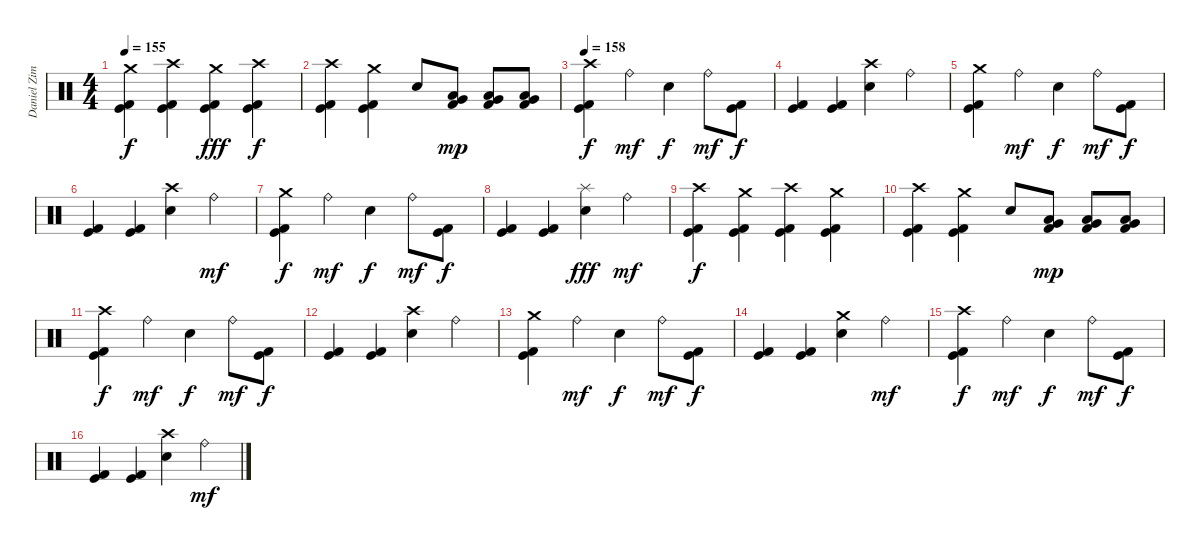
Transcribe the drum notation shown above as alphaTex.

\track ("Daniel Zimmermann - Drums" "Daniel Zim") {instrument percussion}
\staff {score}
\articulation defaults
\ts (4 4)
\tempo 155
\clef neutral
\ks c
("Kick (hit) 2" "Kick (hit)" "Crash medium (hit)").4{dy f} ("Kick (hit) 2" "Kick (hit)" "Crash high (hit)").4 ("Kick (hit) 2" "Kick (hit)" "Crash medium (hit)").4{dy fff} ("Kick (hit) 2" "Kick (hit)" "Crash high (hit)").4{dy f} |
("Kick (hit) 2" "Kick (hit)" "Crash high (hit)").4 ("Kick (hit) 2" "Kick (hit)" "Crash medium (hit)").4 "Electric Snare (hit)".8 ("Kick (hit) 2" "Low Tom (hit)" "Very Low Tom (hit)").8{dy mp} ("Kick (hit) 2" "Low Tom (hit)" "Very Low Tom (hit)").8 ("Kick (hit) 2" "Very Low Tom (hit)" "Low Floor Tom (hit)").8 |
\tempo 158
("Kick (hit) 2" "Kick (hit)" "Crash high (hit)").4{dy f} "Ride (bell)".4{dy mf} "Electric Snare (hit)".4{dy f} "Ride (bell)".8{dy mf} ("Kick (hit) 2" "Kick (hit)").8{dy f} |
("Kick (hit) 2" "Kick (hit)").4 ("Kick (hit) 2" "Kick (hit)").4 ("Electric Snare (hit)" "Crash high (hit)").4 "Ride (bell)".4 |
("Kick (hit) 2" "Kick (hit)" "Crash medium (hit)").4 "Ride (bell)".4{dy mf} "Electric Snare (hit)".4{dy f} "Ride (bell)".8{dy mf} ("Kick (hit) 2" "Kick (hit)").8{dy f} |
("Kick (hit) 2" "Kick (hit)").4 ("Kick (hit) 2" "Kick (hit)").4 ("Electric Snare (hit)" "Crash high (hit)").4 "Ride (bell)".4{dy mf} |
("Kick (hit) 2" "Kick (hit)" "Crash medium (hit)").4{dy f} "Ride (bell)".4{dy mf} "Electric Snare (hit)".4{dy f} "Ride (bell)".8{dy mf} ("Kick (hit) 2" "Kick (hit)").8{dy f} |
("Kick (hit) 2" "Kick (hit)").4 ("Kick (hit) 2" "Kick (hit)").4 ("Electric Snare (hit)" "Splash (hit)").4{dy fff} "Ride (bell)".4{dy mf} |
("Kick (hit) 2" "Kick (hit)" "Crash high (hit)").4{dy f} ("Kick (hit) 2" "Kick (hit)" "Crash medium (hit)").4 ("Kick (hit) 2" "Kick (hit)" "Crash high (hit)").4 ("Kick (hit) 2" "Kick (hit)" "Crash medium (hit)").4 |
("Kick (hit) 2" "Kick (hit)" "Crash high (hit)").4 ("Kick (hit) 2" "Kick (hit)" "Crash medium (hit)").4 "Electric Snare (hit)".8 ("Kick (hit) 2" "Low Tom (hit)" "Very Low Tom (hit)").8{dy mp} ("Kick (hit) 2" "Low Tom (hit)" "Very Low Tom (hit)").8 ("Kick (hit) 2" "Very Low Tom (hit)" "Low Floor Tom (hit)").8 |
("Kick (hit) 2" "Kick (hit)" "Crash high (hit)").4{dy f} "Ride (bell)".4{dy mf} "Electric Snare (hit)".4{dy f} "Ride (bell)".8{dy mf} ("Kick (hit) 2" "Kick (hit)").8{dy f} |
("Kick (hit) 2" "Kick (hit)").4 ("Kick (hit) 2" "Kick (hit)").4 ("Electric Snare (hit)" "Crash high (hit)").4 "Ride (bell)".4 |
("Kick (hit) 2" "Kick (hit)" "Crash medium (hit)").4 "Ride (bell)".4{dy mf} "Electric Snare (hit)".4{dy f} "Ride (bell)".8{dy mf} ("Kick (hit) 2" "Kick (hit)").8{dy f} |
("Kick (hit) 2" "Kick (hit)").4 ("Kick (hit) 2" "Kick (hit)").4 ("Electric Snare (hit)" "Crash medium (hit)").4 "Ride (bell)".4{dy mf} |
("Kick (hit) 2" "Kick (hit)" "Crash high (hit)").4{dy f} "Ride (bell)".4{dy mf} "Electric Snare (hit)".4{dy f} "Ride (bell)".8{dy mf} ("Kick (hit) 2" "Kick (hit)").8{dy f} |
("Kick (hit) 2" "Kick (hit)").4 ("Kick (hit) 2" "Kick (hit)").4 ("Electric Snare (hit)" "Crash high (hit)").4 "Ride (bell)".4{dy mf}
